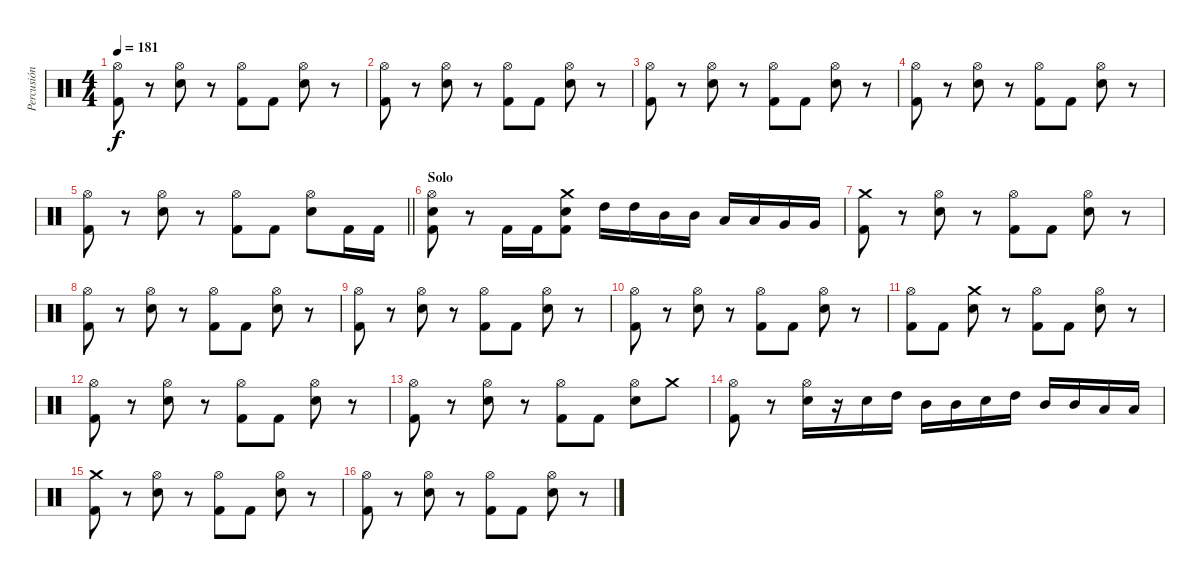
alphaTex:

\track ("Percusión" "Percusión") {instrument percussion}
\staff {score}
\articulation defaults
\ts (4 4)
\tempo 181
\clef neutral
\ks c
("Hi-Hat (open)" "Kick (hit) 2").8{dy f} r.8 ("Hi-Hat (open)" "Electric Snare (hit)").8 r.8 ("Hi-Hat (open)" "Kick (hit) 2").8 "Kick (hit) 2".8 ("Hi-Hat (open)" "Electric Snare (hit)").8 r.8 |
("Hi-Hat (open)" "Kick (hit) 2").8 r.8 ("Hi-Hat (open)" "Electric Snare (hit)").8 r.8 ("Hi-Hat (open)" "Kick (hit) 2").8 "Kick (hit) 2".8 ("Hi-Hat (open)" "Electric Snare (hit)").8 r.8 |
("Hi-Hat (open)" "Kick (hit) 2").8 r.8 ("Hi-Hat (open)" "Electric Snare (hit)").8 r.8 ("Hi-Hat (open)" "Kick (hit) 2").8 "Kick (hit) 2".8 ("Hi-Hat (open)" "Electric Snare (hit)").8 r.8 |
("Hi-Hat (open)" "Kick (hit) 2").8 r.8 ("Hi-Hat (open)" "Electric Snare (hit)").8 r.8 ("Hi-Hat (open)" "Kick (hit) 2").8 "Kick (hit) 2".8 ("Hi-Hat (open)" "Electric Snare (hit)").8 r.8 |
\barLineRight lightlight
("Hi-Hat (open)" "Kick (hit) 2").8 r.8 ("Hi-Hat (open)" "Electric Snare (hit)").8 r.8 ("Hi-Hat (open)" "Kick (hit) 2").8 "Kick (hit) 2".8 ("Hi-Hat (open)" "Electric Snare (hit)").8 "Kick (hit) 2".16 "Kick (hit) 2".16 |
\section ("" "Solo")
("Hi-Hat (open)" "Electric Snare (hit)" "Kick (hit) 2").8 r.8 "Kick (hit) 2".16 "Kick (hit) 2".16 ("Crash medium (hit)" "Electric Snare (hit)" "Kick (hit) 2").8 "High Tom (hit)".16 "High Tom (hit)".16 "Mid Tom (hit)".16 "Mid Tom (hit)".16 "Low Tom (hit)".16 "Low Tom (hit)".16 "Very Low Tom (hit)".16 "Very Low Tom (hit)".16 |
("Crash medium (hit)" "Kick (hit) 2").8 r.8 ("Hi-Hat (open)" "Electric Snare (hit)").8 r.8 ("Hi-Hat (open)" "Kick (hit) 2").8 "Kick (hit) 2".8 ("Hi-Hat (open)" "Electric Snare (hit)").8 r.8 |
("Hi-Hat (open)" "Kick (hit) 2").8 r.8 ("Hi-Hat (open)" "Electric Snare (hit)").8 r.8 ("Hi-Hat (open)" "Kick (hit) 2").8 "Kick (hit) 2".8 ("Hi-Hat (open)" "Electric Snare (hit)").8 r.8 |
("Hi-Hat (open)" "Kick (hit) 2").8 r.8 ("Hi-Hat (open)" "Electric Snare (hit)").8 r.8 ("Hi-Hat (open)" "Kick (hit) 2").8 "Kick (hit) 2".8 ("Hi-Hat (open)" "Electric Snare (hit)").8 r.8 |
("Hi-Hat (open)" "Kick (hit) 2").8 r.8 ("Hi-Hat (open)" "Electric Snare (hit)").8 r.8 ("Hi-Hat (open)" "Kick (hit) 2").8 "Kick (hit) 2".8 ("Hi-Hat (open)" "Electric Snare (hit)").8 r.8 |
("Hi-Hat (open)" "Kick (hit) 2").8 "Kick (hit) 2".8 ("Crash medium (hit)" "Electric Snare (hit)").8 r.8 ("Hi-Hat (open)" "Kick (hit) 2").8 "Kick (hit) 2".8 ("Hi-Hat (open)" "Electric Snare (hit)").8 r.8 |
("Hi-Hat (open)" "Kick (hit) 2").8 r.8 ("Hi-Hat (open)" "Electric Snare (hit)").8 r.8 ("Hi-Hat (open)" "Kick (hit) 2").8 "Kick (hit) 2".8 ("Hi-Hat (open)" "Electric Snare (hit)").8 r.8 |
("Hi-Hat (open)" "Kick (hit) 2").8 r.8 ("Hi-Hat (open)" "Electric Snare (hit)").8 r.8 ("Hi-Hat (open)" "Kick (hit) 2").8 "Kick (hit) 2".8 ("Hi-Hat (open)" "Electric Snare (hit)").8 "Crash medium (hit)".8 |
("Hi-Hat (open)" "Kick (hit) 2").8 r.8 ("Hi-Hat (open)" "Electric Snare (hit)").16 r.16 "Electric Snare (hit)".16 "High Tom (hit)".16 "Mid Tom (hit)".16 "Mid Tom (hit)".16 "Electric Snare (hit)".16 "High Tom (hit)".16 "Mid Tom (hit)".16 "Mid Tom (hit)".16 "Low Tom (hit)".16 "Low Tom (hit)".16 |
("Crash medium (hit)" "Kick (hit) 2").8 r.8 ("Hi-Hat (open)" "Electric Snare (hit)").8 r.8 ("Hi-Hat (open)" "Kick (hit) 2").8 "Kick (hit) 2".8 ("Hi-Hat (open)" "Electric Snare (hit)").8 r.8 |
("Hi-Hat (open)" "Kick (hit) 2").8 r.8 ("Hi-Hat (open)" "Electric Snare (hit)").8 r.8 ("Hi-Hat (open)" "Kick (hit) 2").8 "Kick (hit) 2".8 ("Hi-Hat (open)" "Electric Snare (hit)").8 r.8
